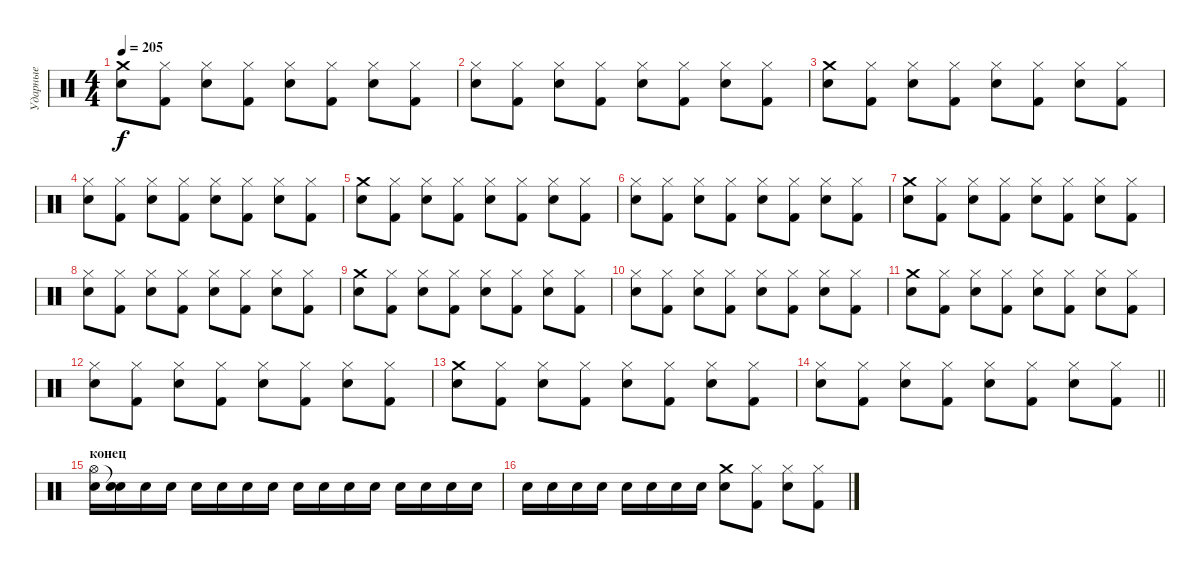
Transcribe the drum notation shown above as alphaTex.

\track ("Ударные" "Ударные") {instrument percussion}
\staff {score}
\articulation defaults
\ts (4 4)
\tempo 205
\clef neutral
\ks c
("Electric Snare (hit)" "Crash medium (hit)").8{dy f} ("Kick (hit) 2" "Hi-Hat (closed)").8 ("Electric Snare (hit)" "Hi-Hat (closed)").8 ("Kick (hit) 2" "Hi-Hat (closed)").8 ("Electric Snare (hit)" "Hi-Hat (closed)").8 ("Kick (hit) 2" "Hi-Hat (closed)").8 ("Electric Snare (hit)" "Hi-Hat (closed)").8 ("Kick (hit) 2" "Hi-Hat (closed)").8 |
("Electric Snare (hit)" "Hi-Hat (closed)").8 ("Kick (hit) 2" "Hi-Hat (closed)").8 ("Electric Snare (hit)" "Hi-Hat (closed)").8 ("Kick (hit) 2" "Hi-Hat (closed)").8 ("Electric Snare (hit)" "Hi-Hat (closed)").8 ("Kick (hit) 2" "Hi-Hat (closed)").8 ("Electric Snare (hit)" "Hi-Hat (closed)").8 ("Kick (hit) 2" "Hi-Hat (closed)").8 |
("Electric Snare (hit)" "Crash medium (hit)").8 ("Kick (hit) 2" "Hi-Hat (closed)").8 ("Electric Snare (hit)" "Hi-Hat (closed)").8 ("Kick (hit) 2" "Hi-Hat (closed)").8 ("Electric Snare (hit)" "Hi-Hat (closed)").8 ("Kick (hit) 2" "Hi-Hat (closed)").8 ("Electric Snare (hit)" "Hi-Hat (closed)").8 ("Kick (hit) 2" "Hi-Hat (closed)").8 |
("Electric Snare (hit)" "Hi-Hat (closed)").8 ("Kick (hit) 2" "Hi-Hat (closed)").8 ("Electric Snare (hit)" "Hi-Hat (closed)").8 ("Kick (hit) 2" "Hi-Hat (closed)").8 ("Electric Snare (hit)" "Hi-Hat (closed)").8 ("Kick (hit) 2" "Hi-Hat (closed)").8 ("Electric Snare (hit)" "Hi-Hat (closed)").8 ("Kick (hit) 2" "Hi-Hat (closed)").8 |
("Electric Snare (hit)" "Crash medium (hit)").8 ("Kick (hit) 2" "Hi-Hat (closed)").8 ("Electric Snare (hit)" "Hi-Hat (closed)").8 ("Kick (hit) 2" "Hi-Hat (closed)").8 ("Electric Snare (hit)" "Hi-Hat (closed)").8 ("Kick (hit) 2" "Hi-Hat (closed)").8 ("Electric Snare (hit)" "Hi-Hat (closed)").8 ("Kick (hit) 2" "Hi-Hat (closed)").8 |
("Electric Snare (hit)" "Hi-Hat (closed)").8 ("Kick (hit) 2" "Hi-Hat (closed)").8 ("Electric Snare (hit)" "Hi-Hat (closed)").8 ("Kick (hit) 2" "Hi-Hat (closed)").8 ("Electric Snare (hit)" "Hi-Hat (closed)").8 ("Kick (hit) 2" "Hi-Hat (closed)").8 ("Electric Snare (hit)" "Hi-Hat (closed)").8 ("Kick (hit) 2" "Hi-Hat (closed)").8 |
("Electric Snare (hit)" "Crash medium (hit)").8 ("Kick (hit) 2" "Hi-Hat (closed)").8 ("Electric Snare (hit)" "Hi-Hat (closed)").8 ("Kick (hit) 2" "Hi-Hat (closed)").8 ("Electric Snare (hit)" "Hi-Hat (closed)").8 ("Kick (hit) 2" "Hi-Hat (closed)").8 ("Electric Snare (hit)" "Hi-Hat (closed)").8 ("Kick (hit) 2" "Hi-Hat (closed)").8 |
("Electric Snare (hit)" "Hi-Hat (closed)").8 ("Kick (hit) 2" "Hi-Hat (closed)").8 ("Electric Snare (hit)" "Hi-Hat (closed)").8 ("Kick (hit) 2" "Hi-Hat (closed)").8 ("Electric Snare (hit)" "Hi-Hat (closed)").8 ("Kick (hit) 2" "Hi-Hat (closed)").8 ("Electric Snare (hit)" "Hi-Hat (closed)").8 ("Kick (hit) 2" "Hi-Hat (closed)").8 |
("Electric Snare (hit)" "Crash medium (hit)").8 ("Kick (hit) 2" "Hi-Hat (closed)").8 ("Electric Snare (hit)" "Hi-Hat (closed)").8 ("Kick (hit) 2" "Hi-Hat (closed)").8 ("Electric Snare (hit)" "Hi-Hat (closed)").8 ("Kick (hit) 2" "Hi-Hat (closed)").8 ("Electric Snare (hit)" "Hi-Hat (closed)").8 ("Kick (hit) 2" "Hi-Hat (closed)").8 |
("Electric Snare (hit)" "Hi-Hat (closed)").8 ("Kick (hit) 2" "Hi-Hat (closed)").8 ("Electric Snare (hit)" "Hi-Hat (closed)").8 ("Kick (hit) 2" "Hi-Hat (closed)").8 ("Electric Snare (hit)" "Hi-Hat (closed)").8 ("Kick (hit) 2" "Hi-Hat (closed)").8 ("Electric Snare (hit)" "Hi-Hat (closed)").8 ("Kick (hit) 2" "Hi-Hat (closed)").8 |
("Electric Snare (hit)" "Crash medium (hit)").8 ("Kick (hit) 2" "Hi-Hat (closed)").8 ("Electric Snare (hit)" "Hi-Hat (closed)").8 ("Kick (hit) 2" "Hi-Hat (closed)").8 ("Electric Snare (hit)" "Hi-Hat (closed)").8 ("Kick (hit) 2" "Hi-Hat (closed)").8 ("Electric Snare (hit)" "Hi-Hat (closed)").8 ("Kick (hit) 2" "Hi-Hat (closed)").8 |
("Electric Snare (hit)" "Hi-Hat (closed)").8 ("Kick (hit) 2" "Hi-Hat (closed)").8 ("Electric Snare (hit)" "Hi-Hat (closed)").8 ("Kick (hit) 2" "Hi-Hat (closed)").8 ("Electric Snare (hit)" "Hi-Hat (closed)").8 ("Kick (hit) 2" "Hi-Hat (closed)").8 ("Electric Snare (hit)" "Hi-Hat (closed)").8 ("Kick (hit) 2" "Hi-Hat (closed)").8 |
("Electric Snare (hit)" "Crash medium (hit)").8 ("Kick (hit) 2" "Hi-Hat (closed)").8 ("Electric Snare (hit)" "Hi-Hat (closed)").8 ("Kick (hit) 2" "Hi-Hat (closed)").8 ("Electric Snare (hit)" "Hi-Hat (closed)").8 ("Kick (hit) 2" "Hi-Hat (closed)").8 ("Electric Snare (hit)" "Hi-Hat (closed)").8 ("Kick (hit) 2" "Hi-Hat (closed)").8 |
\barLineRight lightlight
("Electric Snare (hit)" "Hi-Hat (closed)").8 ("Kick (hit) 2" "Hi-Hat (closed)").8 ("Electric Snare (hit)" "Hi-Hat (closed)").8 ("Kick (hit) 2" "Hi-Hat (closed)").8 ("Electric Snare (hit)" "Hi-Hat (closed)").8 ("Kick (hit) 2" "Hi-Hat (closed)").8 ("Electric Snare (hit)" "Hi-Hat (closed)").8 ("Kick (hit) 2" "Hi-Hat (closed)").8 |
\section ("" "конец")
("Snare (hit) 2" "Hi-Hat (open)").16 ("Electric Snare (hit)" "Snare (hit)"{t}).16 "Snare (hit) 2".16 "Electric Snare (hit)".16 "Snare (hit) 2".16 "Electric Snare (hit)".16 "Snare (hit) 2".16 "Electric Snare (hit)".16 "Snare (hit) 2".16 "Electric Snare (hit)".16 "Snare (hit) 2".16 "Electric Snare (hit)".16 "Snare (hit) 2".16 "Electric Snare (hit)".16 "Snare (hit) 2".16 "Electric Snare (hit)".16 |
"Snare (hit) 2".16 "Electric Snare (hit)".16 "Snare (hit) 2".16 "Electric Snare (hit)".16 "Snare (hit) 2".16 "Electric Snare (hit)".16 "Snare (hit) 2".16 "Electric Snare (hit)".16 ("Electric Snare (hit)" "Crash medium (hit)").8 ("Kick (hit) 2" "Hi-Hat (closed)").8 ("Electric Snare (hit)" "Hi-Hat (closed)").8 ("Kick (hit) 2" "Hi-Hat (closed)").8
